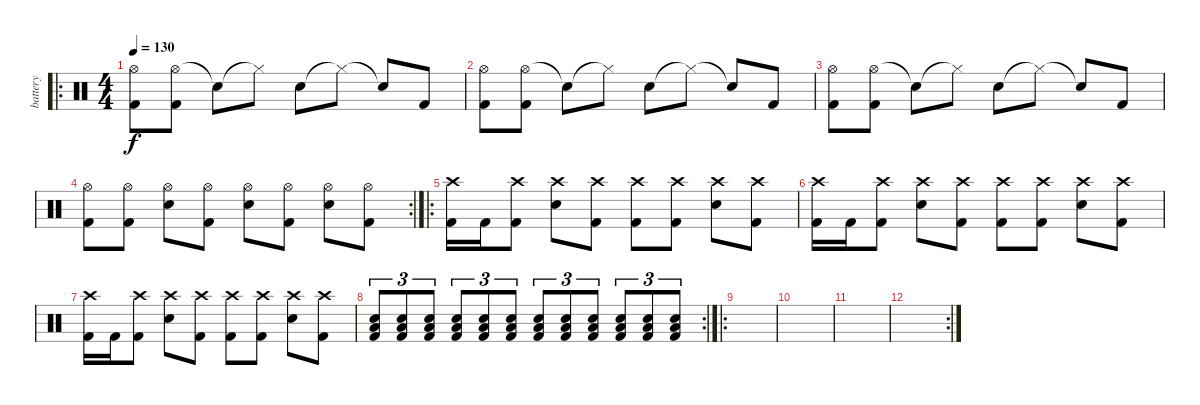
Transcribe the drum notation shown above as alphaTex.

\track ("battery" "battery") {instrument percussion}
\staff {score}
\articulation defaults
\ro
\ts (4 4)
\tempo 130
\clef neutral
\ks c
("Hi-Hat (open)" "Kick (hit) 2").8{dy f} ("Hi-Hat (open)" "Kick (hit) 2").8 "Electric Snare (hit)"{t}.8 "Hi-Hat (closed)"{t}.8 "Electric Snare (hit)".8 "Hi-Hat (closed)"{t}.8 "Electric Snare (hit)"{t}.8 "Kick (hit) 2".8 |
("Hi-Hat (open)" "Kick (hit) 2").8 ("Hi-Hat (open)" "Kick (hit) 2").8 "Electric Snare (hit)"{t}.8 "Hi-Hat (closed)"{t}.8 "Electric Snare (hit)".8 "Hi-Hat (closed)"{t}.8 "Electric Snare (hit)"{t}.8 "Kick (hit) 2".8 |
("Hi-Hat (open)" "Kick (hit) 2").8 ("Hi-Hat (open)" "Kick (hit) 2").8 "Electric Snare (hit)"{t}.8 "Hi-Hat (closed)"{t}.8 "Electric Snare (hit)".8 "Hi-Hat (closed)"{t}.8 "Electric Snare (hit)"{t}.8 "Kick (hit) 2".8 |
\rc 2
("Hi-Hat (open)" "Kick (hit) 2").8 ("Hi-Hat (open)" "Kick (hit) 2").8 ("Hi-Hat (open)" "Electric Snare (hit)").8 ("Hi-Hat (open)" "Kick (hit) 2").8 ("Hi-Hat (open)" "Electric Snare (hit)").8 ("Hi-Hat (open)" "Kick (hit) 2").8 ("Hi-Hat (open)" "Electric Snare (hit)").8 ("Hi-Hat (open)" "Kick (hit) 2").8 |
\ro
("Crash high (hit)" "Kick (hit) 2").16 "Kick (hit) 2".16 ("Crash high (hit)" "Kick (hit) 2").8 ("Crash high (hit)" "Electric Snare (hit)").8 ("Crash high (hit)" "Kick (hit) 2").8 ("Crash high (hit)" "Kick (hit) 2").8 ("Crash high (hit)" "Kick (hit) 2").8 ("Crash high (hit)" "Electric Snare (hit)").8 ("Crash high (hit)" "Kick (hit) 2").8 |
("Crash high (hit)" "Kick (hit) 2").16 "Kick (hit) 2".16 ("Crash high (hit)" "Kick (hit) 2").8 ("Crash high (hit)" "Electric Snare (hit)").8 ("Crash high (hit)" "Kick (hit) 2").8 ("Crash high (hit)" "Kick (hit) 2").8 ("Crash high (hit)" "Kick (hit) 2").8 ("Crash high (hit)" "Electric Snare (hit)").8 ("Crash high (hit)" "Kick (hit) 2").8 |
("Crash high (hit)" "Kick (hit) 2").16 "Kick (hit) 2".16 ("Crash high (hit)" "Kick (hit) 2").8 ("Crash high (hit)" "Electric Snare (hit)").8 ("Crash high (hit)" "Kick (hit) 2").8 ("Crash high (hit)" "Kick (hit) 2").8 ("Crash high (hit)" "Kick (hit) 2").8 ("Crash high (hit)" "Electric Snare (hit)").8 ("Crash high (hit)" "Kick (hit) 2").8 |
\rc 2
("Low Floor Tom (hit)" "Electric Snare (hit)" "Kick (hit) 2").8{tu (3 2)} ("Low Floor Tom (hit)" "Electric Snare (hit)" "Kick (hit) 2").8{tu (3 2)} ("Low Floor Tom (hit)" "Electric Snare (hit)" "Kick (hit) 2").8{tu (3 2)} ("Low Floor Tom (hit)" "Electric Snare (hit)" "Kick (hit) 2").8{tu (3 2)} ("Low Floor Tom (hit)" "Electric Snare (hit)" "Kick (hit) 2").8{tu (3 2)} ("Low Floor Tom (hit)" "Electric Snare (hit)" "Kick (hit) 2").8{tu (3 2)} ("Low Floor Tom (hit)" "Electric Snare (hit)" "Kick (hit) 2").8{tu (3 2)} ("Low Floor Tom (hit)" "Electric Snare (hit)" "Kick (hit) 2").8{tu (3 2)} ("Low Floor Tom (hit)" "Electric Snare (hit)" "Kick (hit) 2").8{tu (3 2)} ("Low Floor Tom (hit)" "Electric Snare (hit)" "Kick (hit) 2").8{tu (3 2)} ("Low Floor Tom (hit)" "Electric Snare (hit)" "Kick (hit) 2").8{tu (3 2)} ("Low Floor Tom (hit)" "Electric Snare (hit)" "Kick (hit) 2").8{tu (3 2)} |
\ro
|
|
|
\rc 2
